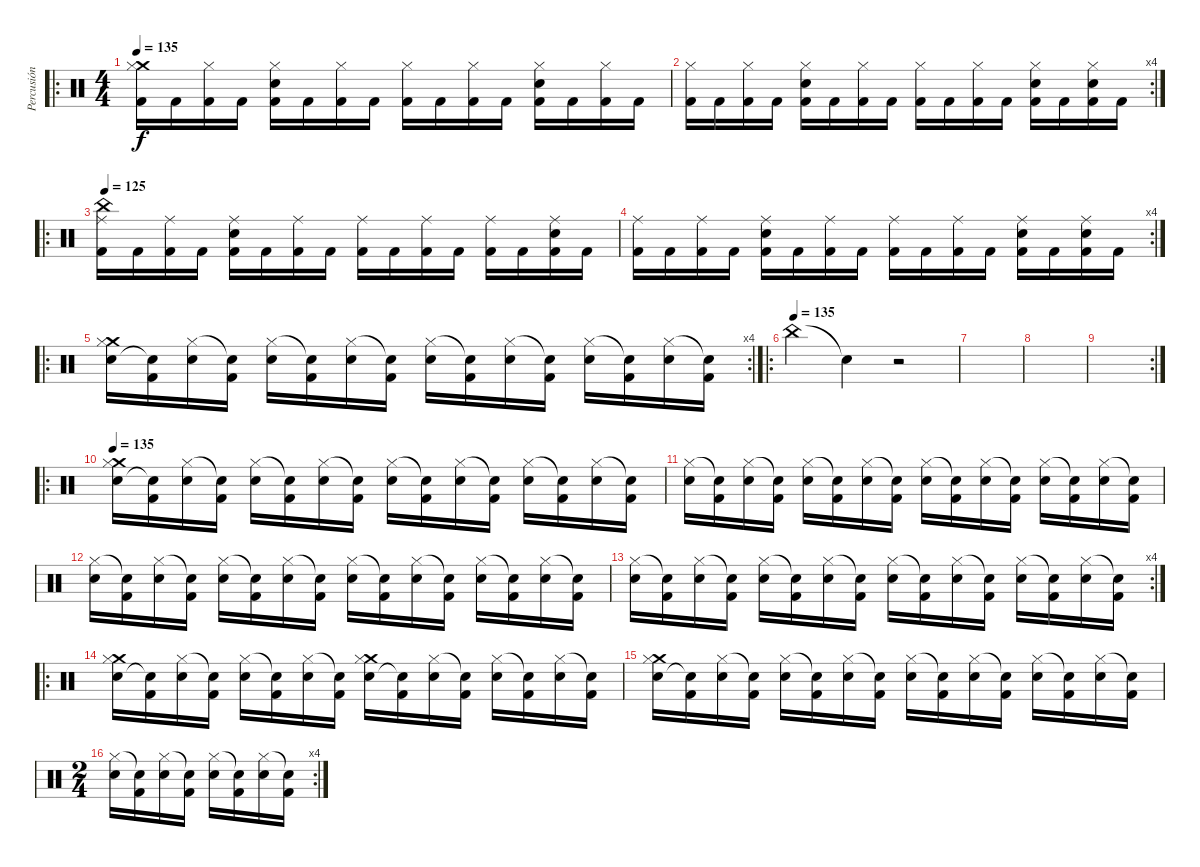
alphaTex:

\track ("Percusión" "Percusión") {instrument percussion}
\staff {score}
\articulation defaults
\ro
\ts (4 4)
\tempo 135
\clef neutral
\ks c
("Crash medium (hit)" "Hi-Hat (closed)" "Kick (hit) 2").16{dy f} "Kick (hit) 2".16 ("Hi-Hat (closed)" "Kick (hit) 2").16 "Kick (hit) 2".16 ("Snare (hit) 2" "Hi-Hat (closed)" "Kick (hit) 2").16 "Kick (hit) 2".16 ("Hi-Hat (closed)" "Kick (hit) 2").16 "Kick (hit) 2".16 ("Hi-Hat (closed)" "Kick (hit) 2").16 "Kick (hit) 2".16 ("Hi-Hat (closed)" "Kick (hit) 2").16 "Kick (hit) 2".16 ("Snare (hit) 2" "Hi-Hat (closed)" "Kick (hit) 2").16 "Kick (hit) 2".16 ("Hi-Hat (closed)" "Kick (hit) 2").16 "Kick (hit) 2".16 |
\rc 4
("Hi-Hat (closed)" "Kick (hit) 2").16 "Kick (hit) 2".16 ("Hi-Hat (closed)" "Kick (hit) 2").16 "Kick (hit) 2".16 ("Snare (hit) 2" "Hi-Hat (closed)" "Kick (hit) 2").16 "Kick (hit) 2".16 ("Hi-Hat (closed)" "Kick (hit) 2").16 "Kick (hit) 2".16 ("Hi-Hat (closed)" "Kick (hit) 2").16 "Kick (hit) 2".16 ("Hi-Hat (closed)" "Kick (hit) 2").16 "Kick (hit) 2".16 ("Snare (hit) 2" "Hi-Hat (closed)" "Kick (hit) 2").16 "Kick (hit) 2".16 ("Snare (hit) 2" "Hi-Hat (closed)" "Kick (hit) 2").16 "Kick (hit) 2".16 |
\ro
\tempo 125
("China (hit)" "Kick (hit) 2" "Ride (middle)").16 "Kick (hit) 2".16 ("Kick (hit) 2" "Ride (middle)").16 "Kick (hit) 2".16 ("Snare (hit) 2" "Kick (hit) 2" "Ride (middle)").16 "Kick (hit) 2".16 ("Kick (hit) 2" "Ride (middle)").16 "Kick (hit) 2".16 ("Kick (hit) 2" "Ride (middle)").16 "Kick (hit) 2".16 ("Kick (hit) 2" "Ride (middle)").16 "Kick (hit) 2".16 ("Kick (hit) 2" "Ride (middle)").16 "Kick (hit) 2".16 ("Snare (hit) 2" "Kick (hit) 2" "Ride (middle)").16 "Kick (hit) 2".16 |
\rc 4
("Kick (hit) 2" "Ride (middle)").16 "Kick (hit) 2".16 ("Kick (hit) 2" "Ride (middle)").16 "Kick (hit) 2".16 ("Snare (hit) 2" "Kick (hit) 2" "Ride (middle)").16 "Kick (hit) 2".16 ("Kick (hit) 2" "Ride (middle)").16 "Kick (hit) 2".16 ("Kick (hit) 2" "Ride (middle)").16 "Kick (hit) 2".16 ("Kick (hit) 2" "Ride (middle)").16 "Kick (hit) 2".16 ("Snare (hit) 2" "Kick (hit) 2" "Ride (middle)").16 "Kick (hit) 2".16 ("Snare (hit) 2" "Kick (hit) 2" "Ride (middle)").16 "Kick (hit) 2".16 |
\ro
\rc 4
("Crash medium (hit)" "Snare (hit) 2" "Hi-Hat (closed)").16 ("Kick (hit) 2" "Snare (hit)"{t}).16 ("Snare (hit) 2" "Hi-Hat (closed)").16 ("Kick (hit) 2" "Snare (hit)"{t}).16 ("Snare (hit) 2" "Hi-Hat (closed)").16 ("Kick (hit) 2" "Snare (hit)"{t}).16 ("Snare (hit) 2" "Hi-Hat (closed)").16 ("Kick (hit) 2" "Snare (hit)"{t}).16 ("Snare (hit) 2" "Hi-Hat (closed)").16 ("Kick (hit) 2" "Snare (hit)"{t}).16 ("Snare (hit) 2" "Hi-Hat (closed)").16 ("Kick (hit) 2" "Snare (hit)"{t}).16 ("Snare (hit) 2" "Hi-Hat (closed)").16 ("Kick (hit) 2" "Snare (hit)"{t}).16 ("Snare (hit) 2" "Hi-Hat (closed)").16 ("Kick (hit) 2" "Snare (hit)"{t}).16 |
\ro
\tempo (135)
"China (hit)".4 "Snare (hit)"{t}.4 r.2 |
|
|
\rc 2
|
\ro
\tempo 135
("Crash medium (hit)" "Snare (hit) 2" "Hi-Hat (closed)").16 ("Kick (hit) 2" "Snare (hit)"{t}).16 ("Snare (hit) 2" "Hi-Hat (closed)").16 ("Kick (hit) 2" "Snare (hit)"{t}).16 ("Snare (hit) 2" "Hi-Hat (closed)").16 ("Kick (hit) 2" "Snare (hit)"{t}).16 ("Snare (hit) 2" "Hi-Hat (closed)").16 ("Kick (hit) 2" "Snare (hit)"{t}).16 ("Snare (hit) 2" "Hi-Hat (closed)").16 ("Kick (hit) 2" "Snare (hit)"{t}).16 ("Snare (hit) 2" "Hi-Hat (closed)").16 ("Kick (hit) 2" "Snare (hit)"{t}).16 ("Snare (hit) 2" "Hi-Hat (closed)").16 ("Kick (hit) 2" "Snare (hit)"{t}).16 ("Snare (hit) 2" "Hi-Hat (closed)").16 ("Kick (hit) 2" "Snare (hit)"{t}).16 |
("Snare (hit) 2" "Hi-Hat (closed)").16 ("Kick (hit) 2" "Snare (hit)"{t}).16 ("Snare (hit) 2" "Hi-Hat (closed)").16 ("Kick (hit) 2" "Snare (hit)"{t}).16 ("Snare (hit) 2" "Hi-Hat (closed)").16 ("Kick (hit) 2" "Snare (hit)"{t}).16 ("Snare (hit) 2" "Hi-Hat (closed)").16 ("Kick (hit) 2" "Snare (hit)"{t}).16 ("Snare (hit) 2" "Hi-Hat (closed)").16 ("Kick (hit) 2" "Snare (hit)"{t}).16 ("Snare (hit) 2" "Hi-Hat (closed)").16 ("Kick (hit) 2" "Snare (hit)"{t}).16 ("Snare (hit) 2" "Hi-Hat (closed)").16 ("Kick (hit) 2" "Snare (hit)"{t}).16 ("Snare (hit) 2" "Hi-Hat (closed)").16 ("Kick (hit) 2" "Snare (hit)"{t}).16 |
("Snare (hit) 2" "Hi-Hat (closed)").16 ("Kick (hit) 2" "Snare (hit)"{t}).16 ("Snare (hit) 2" "Hi-Hat (closed)").16 ("Kick (hit) 2" "Snare (hit)"{t}).16 ("Snare (hit) 2" "Hi-Hat (closed)").16 ("Kick (hit) 2" "Snare (hit)"{t}).16 ("Snare (hit) 2" "Hi-Hat (closed)").16 ("Kick (hit) 2" "Snare (hit)"{t}).16 ("Snare (hit) 2" "Hi-Hat (closed)").16 ("Kick (hit) 2" "Snare (hit)"{t}).16 ("Snare (hit) 2" "Hi-Hat (closed)").16 ("Kick (hit) 2" "Snare (hit)"{t}).16 ("Snare (hit) 2" "Hi-Hat (closed)").16 ("Kick (hit) 2" "Snare (hit)"{t}).16 ("Snare (hit) 2" "Hi-Hat (closed)").16 ("Kick (hit) 2" "Snare (hit)"{t}).16 |
\rc 4
("Snare (hit) 2" "Hi-Hat (closed)").16 ("Kick (hit) 2" "Snare (hit)"{t}).16 ("Snare (hit) 2" "Hi-Hat (closed)").16 ("Kick (hit) 2" "Snare (hit)"{t}).16 ("Snare (hit) 2" "Hi-Hat (closed)").16 ("Kick (hit) 2" "Snare (hit)"{t}).16 ("Snare (hit) 2" "Hi-Hat (closed)").16 ("Kick (hit) 2" "Snare (hit)"{t}).16 ("Snare (hit) 2" "Hi-Hat (closed)").16 ("Kick (hit) 2" "Snare (hit)"{t}).16 ("Snare (hit) 2" "Hi-Hat (closed)").16 ("Kick (hit) 2" "Snare (hit)"{t}).16 ("Snare (hit) 2" "Hi-Hat (closed)").16 ("Kick (hit) 2" "Snare (hit)"{t}).16 ("Snare (hit) 2" "Hi-Hat (closed)").16 ("Kick (hit) 2" "Snare (hit)"{t}).16 |
\ro
("Crash medium (hit)" "Snare (hit) 2" "Hi-Hat (closed)").16 ("Kick (hit) 2" "Snare (hit)"{t}).16 ("Snare (hit) 2" "Hi-Hat (closed)").16 ("Kick (hit) 2" "Snare (hit)"{t}).16 ("Snare (hit) 2" "Hi-Hat (closed)").16 ("Kick (hit) 2" "Snare (hit)"{t}).16 ("Snare (hit) 2" "Hi-Hat (closed)").16 ("Kick (hit) 2" "Snare (hit)"{t}).16 ("Crash medium (hit)" "Snare (hit) 2" "Hi-Hat (closed)").16 ("Kick (hit) 2" "Snare (hit)"{t}).16 ("Snare (hit) 2" "Hi-Hat (closed)").16 ("Kick (hit) 2" "Snare (hit)"{t}).16 ("Snare (hit) 2" "Hi-Hat (closed)").16 ("Kick (hit) 2" "Snare (hit)"{t}).16 ("Snare (hit) 2" "Hi-Hat (closed)").16 ("Kick (hit) 2" "Snare (hit)"{t}).16 |
("Crash medium (hit)" "Snare (hit) 2" "Hi-Hat (closed)").16 ("Kick (hit) 2" "Snare (hit)"{t}).16 ("Snare (hit) 2" "Hi-Hat (closed)").16 ("Kick (hit) 2" "Snare (hit)"{t}).16 ("Snare (hit) 2" "Hi-Hat (closed)").16 ("Kick (hit) 2" "Snare (hit)"{t}).16 ("Snare (hit) 2" "Hi-Hat (closed)").16 ("Kick (hit) 2" "Snare (hit)"{t}).16 ("Snare (hit) 2" "Hi-Hat (closed)").16 ("Kick (hit) 2" "Snare (hit)"{t}).16 ("Snare (hit) 2" "Hi-Hat (closed)").16 ("Kick (hit) 2" "Snare (hit)"{t}).16 ("Snare (hit) 2" "Hi-Hat (closed)").16 ("Kick (hit) 2" "Snare (hit)"{t}).16 ("Snare (hit) 2" "Hi-Hat (closed)").16 ("Kick (hit) 2" "Snare (hit)"{t}).16 |
\rc 4
\ts (2 4)
("Snare (hit) 2" "Hi-Hat (closed)").16 ("Kick (hit) 2" "Snare (hit)"{t}).16 ("Snare (hit) 2" "Hi-Hat (closed)").16 ("Kick (hit) 2" "Snare (hit)"{t}).16 ("Snare (hit) 2" "Hi-Hat (closed)").16 ("Kick (hit) 2" "Snare (hit)"{t}).16 ("Snare (hit) 2" "Hi-Hat (closed)").16 ("Kick (hit) 2" "Snare (hit)"{t}).16
